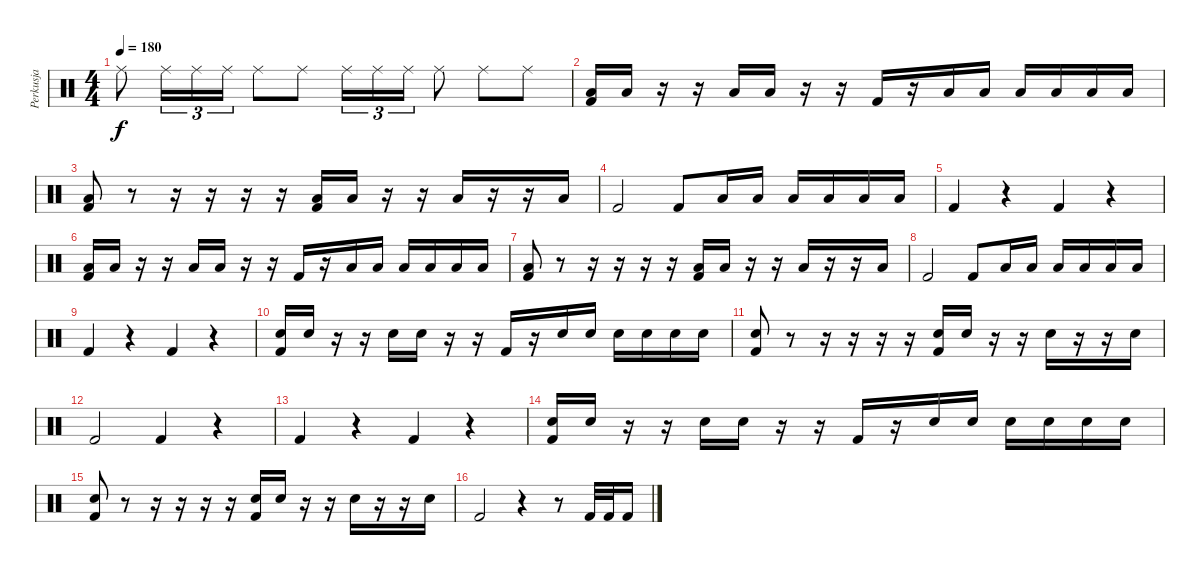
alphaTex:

\track ("Perkusja" "Perkusja") {instrument percussion}
\staff {score}
\articulation defaults
\ts (4 4)
\tempo 180
\clef neutral
\ks c "Ride (middle)".8{dy f} "Ride (middle)".16{tu (3 2)} "Ride (middle)".16{tu (3 2)} "Ride (middle)".16{tu (3 2)} "Ride (middle)".8 "Ride (middle)".8 "Ride (middle)".16{tu (3 2)} "Ride (middle)".16{tu (3 2)} "Ride (middle)".16{tu (3 2)} "Ride (middle)".8 "Ride (middle)".8 "Ride (middle)".8
|
("Low Floor Tom (hit)" "Kick (hit) 2").16 "Low Floor Tom (hit)".16 r.16 r.16 "Low Floor Tom (hit)".16 "Low Floor Tom (hit)".16 r.16 r.16 "Kick (hit) 2".16 r.16 "Low Floor Tom (hit)".16 "Low Floor Tom (hit)".16 "Low Floor Tom (hit)".16 "Low Floor Tom (hit)".16 "Low Floor Tom (hit)".16 "Low Floor Tom (hit)".16 |
("Low Floor Tom (hit)" "Kick (hit) 2").8 r.8 r.16 r.16 r.16 r.16 ("Low Floor Tom (hit)" "Kick (hit) 2").16 "Low Floor Tom (hit)".16 r.16 r.16 "Low Floor Tom (hit)".16 r.16 r.16 "Low Floor Tom (hit)".16 |
"Kick (hit) 2".2 "Kick (hit) 2".8 "Low Floor Tom (hit)".16 "Low Floor Tom (hit)".16 "Low Floor Tom (hit)".16 "Low Floor Tom (hit)".16 "Low Floor Tom (hit)".16 "Low Floor Tom (hit)".16 |
"Kick (hit) 2".4 r.4 "Kick (hit) 2".4 r.4 |
("Low Floor Tom (hit)" "Kick (hit) 2").16 "Low Floor Tom (hit)".16 r.16 r.16 "Low Floor Tom (hit)".16 "Low Floor Tom (hit)".16 r.16 r.16 "Kick (hit) 2".16 r.16 "Low Floor Tom (hit)".16 "Low Floor Tom (hit)".16 "Low Floor Tom (hit)".16 "Low Floor Tom (hit)".16 "Low Floor Tom (hit)".16 "Low Floor Tom (hit)".16 |
("Low Floor Tom (hit)" "Kick (hit) 2").8 r.8 r.16 r.16 r.16 r.16 ("Low Floor Tom (hit)" "Kick (hit) 2").16 "Low Floor Tom (hit)".16 r.16 r.16 "Low Floor Tom (hit)".16 r.16 r.16 "Low Floor Tom (hit)".16 |
"Kick (hit) 2".2 "Kick (hit) 2".8 "Low Floor Tom (hit)".16 "Low Floor Tom (hit)".16 "Low Floor Tom (hit)".16 "Low Floor Tom (hit)".16 "Low Floor Tom (hit)".16 "Low Floor Tom (hit)".16 |
"Kick (hit) 2".4 r.4 "Kick (hit) 2".4 r.4 |
("Electric Snare (hit)" "Kick (hit) 2").16 "Electric Snare (hit)".16 r.16 r.16 "Electric Snare (hit)".16 "Electric Snare (hit)".16 r.16 r.16 "Kick (hit) 2".16 r.16 "Electric Snare (hit)".16 "Electric Snare (hit)".16 "Electric Snare (hit)".16 "Electric Snare (hit)".16 "Electric Snare (hit)".16 "Electric Snare (hit)".16 |
("Electric Snare (hit)" "Kick (hit) 2").8 r.8 r.16 r.16 r.16 r.16 ("Electric Snare (hit)" "Kick (hit) 2").16 "Electric Snare (hit)".16 r.16 r.16 "Electric Snare (hit)".16 r.16 r.16 "Electric Snare (hit)".16 |
"Kick (hit) 2".2 "Kick (hit) 2".4 r.4 |
"Kick (hit) 2".4 r.4 "Kick (hit) 2".4 r.4 |
("Electric Snare (hit)" "Kick (hit) 2").16 "Electric Snare (hit)".16 r.16 r.16 "Electric Snare (hit)".16 "Electric Snare (hit)".16 r.16 r.16 "Kick (hit) 2".16 r.16 "Electric Snare (hit)".16 "Electric Snare (hit)".16 "Electric Snare (hit)".16 "Electric Snare (hit)".16 "Electric Snare (hit)".16 "Electric Snare (hit)".16 |
("Electric Snare (hit)" "Kick (hit) 2").8 r.8 r.16 r.16 r.16 r.16 ("Electric Snare (hit)" "Kick (hit) 2").16 "Electric Snare (hit)".16 r.16 r.16 "Electric Snare (hit)".16 r.16 r.16 "Electric Snare (hit)".16 |
"Kick (hit) 2".2 r.4 r.8 "Kick (hit) 2".32 "Kick (hit) 2".32 "Kick (hit) 2".16
